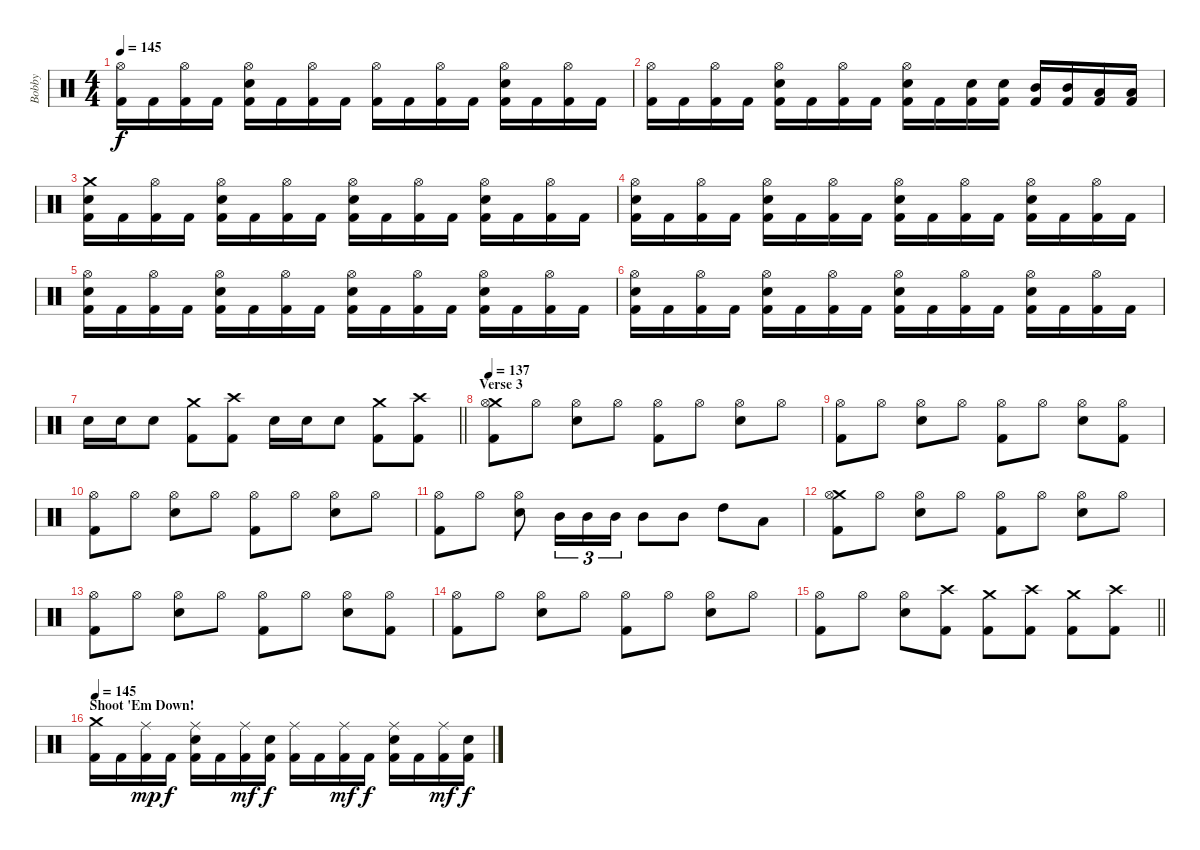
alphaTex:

\track ("Bobby" "Bobby") {instrument percussion}
\staff {score}
\articulation defaults
\ts (4 4)
\tempo 145
\clef neutral
\ks c
("Hi-Hat (open)" "Kick (hit) 2").16{dy f} "Kick (hit) 2".16 ("Hi-Hat (open)" "Kick (hit) 2").16 "Kick (hit) 2".16 ("Hi-Hat (open)" "Electric Snare (hit)" "Kick (hit) 2").16 "Kick (hit) 2".16 ("Hi-Hat (open)" "Kick (hit) 2").16 "Kick (hit) 2".16 ("Hi-Hat (open)" "Kick (hit) 2").16 "Kick (hit) 2".16 ("Hi-Hat (open)" "Kick (hit) 2").16 "Kick (hit) 2".16 ("Hi-Hat (open)" "Electric Snare (hit)" "Kick (hit) 2").16 "Kick (hit) 2".16 ("Hi-Hat (open)" "Kick (hit) 2").16 "Kick (hit) 2".16 |
("Hi-Hat (open)" "Kick (hit) 2").16 "Kick (hit) 2".16 ("Hi-Hat (open)" "Kick (hit) 2").16 "Kick (hit) 2".16 ("Hi-Hat (open)" "Electric Snare (hit)" "Kick (hit) 2").16 "Kick (hit) 2".16 ("Hi-Hat (open)" "Kick (hit) 2").16 "Kick (hit) 2".16 ("Hi-Hat (open)" "Electric Snare (hit)" "Kick (hit) 2").16 "Kick (hit) 2".16 ("Electric Snare (hit)" "Kick (hit) 2").16 ("Electric Snare (hit)" "Kick (hit) 2").16 ("Mid Tom (hit)" "Kick (hit) 2").16 ("Mid Tom (hit)" "Kick (hit) 2").16 ("Low Tom (hit)" "Kick (hit) 2").16 ("Low Tom (hit)" "Kick (hit) 2").16 |
("Crash medium (hit)" "Electric Snare (hit)" "Kick (hit) 2").16 "Kick (hit) 2".16 ("Hi-Hat (open)" "Kick (hit) 2").16 "Kick (hit) 2".16 ("Hi-Hat (open)" "Electric Snare (hit)" "Kick (hit) 2").16 "Kick (hit) 2".16 ("Hi-Hat (open)" "Kick (hit) 2").16 "Kick (hit) 2".16 ("Hi-Hat (open)" "Electric Snare (hit)" "Kick (hit) 2").16 "Kick (hit) 2".16 ("Hi-Hat (open)" "Kick (hit) 2").16 "Kick (hit) 2".16 ("Hi-Hat (open)" "Electric Snare (hit)" "Kick (hit) 2").16 "Kick (hit) 2".16 ("Hi-Hat (open)" "Kick (hit) 2").16 "Kick (hit) 2".16 |
("Hi-Hat (open)" "Electric Snare (hit)" "Kick (hit) 2").16 "Kick (hit) 2".16 ("Hi-Hat (open)" "Kick (hit) 2").16 "Kick (hit) 2".16 ("Hi-Hat (open)" "Electric Snare (hit)" "Kick (hit) 2").16 "Kick (hit) 2".16 ("Hi-Hat (open)" "Kick (hit) 2").16 "Kick (hit) 2".16 ("Hi-Hat (open)" "Electric Snare (hit)" "Kick (hit) 2").16 "Kick (hit) 2".16 ("Hi-Hat (open)" "Kick (hit) 2").16 "Kick (hit) 2".16 ("Hi-Hat (open)" "Electric Snare (hit)" "Kick (hit) 2").16 "Kick (hit) 2".16 ("Hi-Hat (open)" "Kick (hit) 2").16 "Kick (hit) 2".16 |
("Hi-Hat (open)" "Electric Snare (hit)" "Kick (hit) 2").16 "Kick (hit) 2".16 ("Hi-Hat (open)" "Kick (hit) 2").16 "Kick (hit) 2".16 ("Hi-Hat (open)" "Electric Snare (hit)" "Kick (hit) 2").16 "Kick (hit) 2".16 ("Hi-Hat (open)" "Kick (hit) 2").16 "Kick (hit) 2".16 ("Hi-Hat (open)" "Electric Snare (hit)" "Kick (hit) 2").16 "Kick (hit) 2".16 ("Hi-Hat (open)" "Kick (hit) 2").16 "Kick (hit) 2".16 ("Hi-Hat (open)" "Electric Snare (hit)" "Kick (hit) 2").16 "Kick (hit) 2".16 ("Hi-Hat (open)" "Kick (hit) 2").16 "Kick (hit) 2".16 |
("Hi-Hat (open)" "Electric Snare (hit)" "Kick (hit) 2").16 "Kick (hit) 2".16 ("Hi-Hat (open)" "Kick (hit) 2").16 "Kick (hit) 2".16 ("Hi-Hat (open)" "Electric Snare (hit)" "Kick (hit) 2").16 "Kick (hit) 2".16 ("Hi-Hat (open)" "Kick (hit) 2").16 "Kick (hit) 2".16 ("Hi-Hat (open)" "Electric Snare (hit)" "Kick (hit) 2").16 "Kick (hit) 2".16 ("Hi-Hat (open)" "Kick (hit) 2").16 "Kick (hit) 2".16 ("Hi-Hat (open)" "Electric Snare (hit)" "Kick (hit) 2").16 "Kick (hit) 2".16 ("Hi-Hat (open)" "Kick (hit) 2").16 "Kick (hit) 2".16 |
\barLineRight lightlight "Electric Snare (hit)".16 "Electric Snare (hit)".16 "Electric Snare (hit)".8
("Crash medium (hit)" "Kick (hit) 2").8 ("Crash high (hit)" "Kick (hit) 2").8 "Electric Snare (hit)".16 "Electric Snare (hit)".16 "Electric Snare (hit)".8 ("Crash medium (hit)" "Kick (hit) 2").8 ("Crash high (hit)" "Kick (hit) 2").8 |
\section ("" "Verse 3")
\tempo 130
\tempo 137
("Crash medium (hit)" "Hi-Hat (open)" "Kick (hit) 2").8 "Hi-Hat (open)".8 ("Hi-Hat (open)" "Electric Snare (hit)").8 "Hi-Hat (open)".8 ("Hi-Hat (open)" "Kick (hit) 2").8 "Hi-Hat (open)".8 ("Hi-Hat (open)" "Electric Snare (hit)").8 "Hi-Hat (open)".8 |
("Hi-Hat (open)" "Kick (hit) 2").8 "Hi-Hat (open)".8 ("Hi-Hat (open)" "Electric Snare (hit)").8 "Hi-Hat (open)".8 ("Hi-Hat (open)" "Kick (hit) 2").8 "Hi-Hat (open)".8 ("Hi-Hat (open)" "Electric Snare (hit)").8 ("Hi-Hat (open)" "Kick (hit) 2").8 |
("Hi-Hat (open)" "Kick (hit) 2").8 "Hi-Hat (open)".8 ("Hi-Hat (open)" "Electric Snare (hit)").8 "Hi-Hat (open)".8 ("Hi-Hat (open)" "Kick (hit) 2").8 "Hi-Hat (open)".8 ("Hi-Hat (open)" "Electric Snare (hit)").8 "Hi-Hat (open)".8 |
("Hi-Hat (open)" "Kick (hit) 2").8 "Hi-Hat (open)".8 ("Hi-Hat (open)" "Electric Snare (hit)").8 "Mid Tom (hit)".16{tu (3 2)} "Mid Tom (hit)".16{tu (3 2)} "Mid Tom (hit)".16{tu (3 2)} "Mid Tom (hit)".8 "Mid Tom (hit)".8 "High Tom (hit)".8 "Low Tom (hit)".8 |
("Crash medium (hit)" "Hi-Hat (open)" "Kick (hit) 2").8 "Hi-Hat (open)".8 ("Hi-Hat (open)" "Electric Snare (hit)").8 "Hi-Hat (open)".8 ("Hi-Hat (open)" "Kick (hit) 2").8 "Hi-Hat (open)".8 ("Hi-Hat (open)" "Electric Snare (hit)").8 "Hi-Hat (open)".8 |
("Hi-Hat (open)" "Kick (hit) 2").8 "Hi-Hat (open)".8 ("Hi-Hat (open)" "Electric Snare (hit)").8 "Hi-Hat (open)".8 ("Hi-Hat (open)" "Kick (hit) 2").8 "Hi-Hat (open)".8 ("Hi-Hat (open)" "Electric Snare (hit)").8 ("Hi-Hat (open)" "Kick (hit) 2").8 |
("Hi-Hat (open)" "Kick (hit) 2").8 "Hi-Hat (open)".8 ("Hi-Hat (open)" "Electric Snare (hit)").8 "Hi-Hat (open)".8 ("Hi-Hat (open)" "Kick (hit) 2").8 "Hi-Hat (open)".8 ("Hi-Hat (open)" "Electric Snare (hit)").8 "Hi-Hat (open)".8 |
\barLineRight lightlight
("Hi-Hat (open)" "Kick (hit) 2").8 "Hi-Hat (open)".8 ("Hi-Hat (open)" "Electric Snare (hit)").8 ("Crash high (hit)" "Kick (hit) 2").8 ("Crash medium (hit)" "Kick (hit) 2").8 ("Crash high (hit)" "Kick (hit) 2").8 ("Crash medium (hit)" "Kick (hit) 2").8 ("Crash high (hit)" "Kick (hit) 2").8 |
\section ("" "Shoot 'Em Down!")
\tempo 140
\tempo 145
("Crash medium (hit)" "Kick (hit) 2").16 "Kick (hit) 2".16 ("Ride (middle)" "Kick (hit) 2").16{dy mp} "Kick (hit) 2".16{dy f} ("Ride (middle)" "Electric Snare (hit)" "Kick (hit) 2").16 "Kick (hit) 2".16 ("Ride (middle)" "Kick (hit) 2").16{dy mf} ("Electric Snare (hit)" "Kick (hit) 2").16{dy f} ("Ride (middle)" "Kick (hit) 2").16 "Kick (hit) 2".16 ("Ride (middle)" "Kick (hit) 2").16{dy mf} "Kick (hit) 2".16{dy f} ("Ride (middle)" "Electric Snare (hit)" "Kick (hit) 2").16 "Kick (hit) 2".16 ("Ride (middle)" "Kick (hit) 2").16{dy mf} ("Electric Snare (hit)" "Kick (hit) 2").16{dy f}
